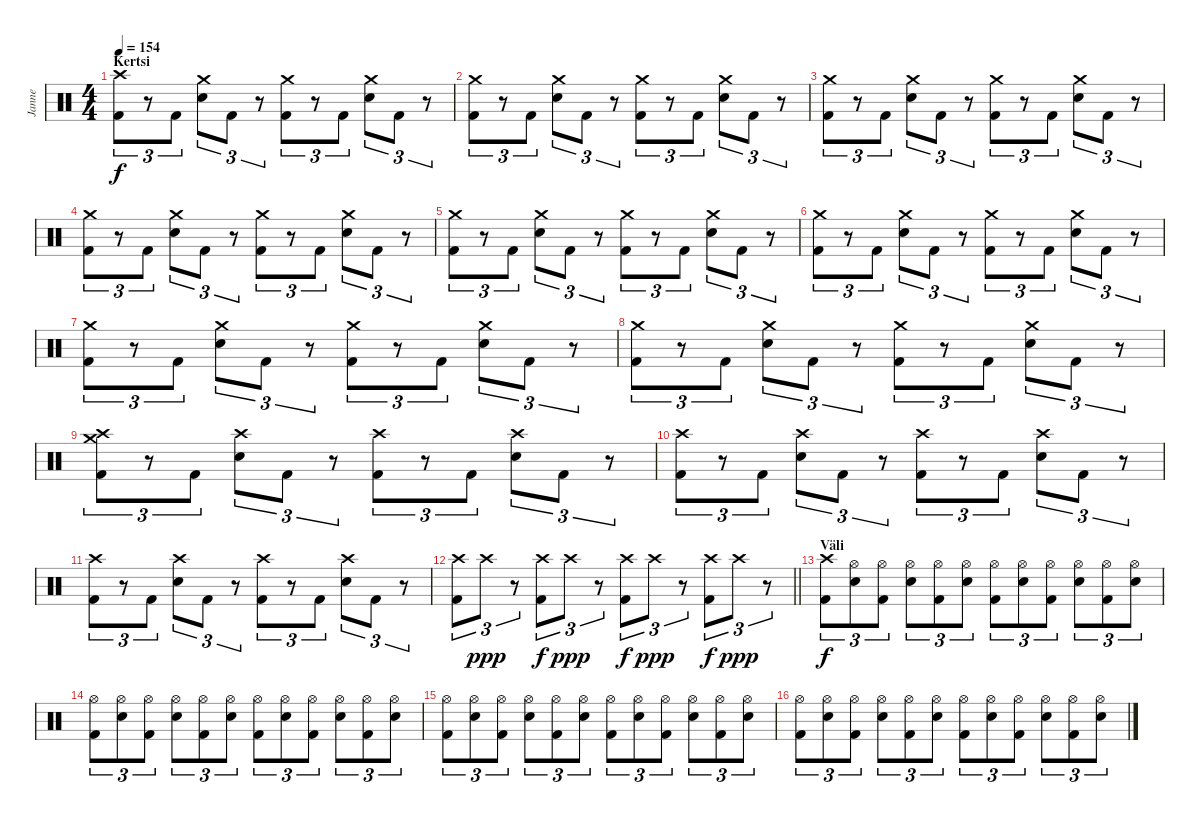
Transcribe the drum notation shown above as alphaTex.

\track ("Janne" "Janne") {instrument percussion}
\staff {score}
\articulation defaults
\ts (4 4)
\section ("" "Kertsi")
\tempo 154
\clef neutral
\ks c
("Crash high (hit)" "Kick (hit) 2").8{tu (3 2) dy f} r.8{tu (3 2)} "Kick (hit) 2".8{tu (3 2)} ("Crash medium (hit)" "Electric Snare (hit)").8{tu (3 2)} "Kick (hit) 2".8{tu (3 2)} r.8{tu (3 2)} ("Crash medium (hit)" "Kick (hit) 2").8{tu (3 2)} r.8{tu (3 2)} "Kick (hit) 2".8{tu (3 2)} ("Crash medium (hit)" "Electric Snare (hit)").8{tu (3 2)} "Kick (hit) 2".8{tu (3 2)} r.8{tu (3 2)} |
("Crash medium (hit)" "Kick (hit) 2").8{tu (3 2)} r.8{tu (3 2)} "Kick (hit) 2".8{tu (3 2)} ("Crash medium (hit)" "Electric Snare (hit)").8{tu (3 2)} "Kick (hit) 2".8{tu (3 2)} r.8{tu (3 2)} ("Crash medium (hit)" "Kick (hit) 2").8{tu (3 2)} r.8{tu (3 2)} "Kick (hit) 2".8{tu (3 2)} ("Crash medium (hit)" "Electric Snare (hit)").8{tu (3 2)} "Kick (hit) 2".8{tu (3 2)} r.8{tu (3 2)} |
("Crash medium (hit)" "Kick (hit) 2").8{tu (3 2)} r.8{tu (3 2)} "Kick (hit) 2".8{tu (3 2)} ("Crash medium (hit)" "Electric Snare (hit)").8{tu (3 2)} "Kick (hit) 2".8{tu (3 2)} r.8{tu (3 2)} ("Crash medium (hit)" "Kick (hit) 2").8{tu (3 2)} r.8{tu (3 2)} "Kick (hit) 2".8{tu (3 2)} ("Crash medium (hit)" "Electric Snare (hit)").8{tu (3 2)} "Kick (hit) 2".8{tu (3 2)} r.8{tu (3 2)} |
("Crash medium (hit)" "Kick (hit) 2").8{tu (3 2)} r.8{tu (3 2)} "Kick (hit) 2".8{tu (3 2)} ("Crash medium (hit)" "Electric Snare (hit)").8{tu (3 2)} "Kick (hit) 2".8{tu (3 2)} r.8{tu (3 2)} ("Crash medium (hit)" "Kick (hit) 2").8{tu (3 2)} r.8{tu (3 2)} "Kick (hit) 2".8{tu (3 2)} ("Crash medium (hit)" "Electric Snare (hit)").8{tu (3 2)} "Kick (hit) 2".8{tu (3 2)} r.8{tu (3 2)} |
("Crash medium (hit)" "Kick (hit) 2").8{tu (3 2)} r.8{tu (3 2)} "Kick (hit) 2".8{tu (3 2)} ("Crash medium (hit)" "Electric Snare (hit)").8{tu (3 2)} "Kick (hit) 2".8{tu (3 2)} r.8{tu (3 2)} ("Crash medium (hit)" "Kick (hit) 2").8{tu (3 2)} r.8{tu (3 2)} "Kick (hit) 2".8{tu (3 2)} ("Crash medium (hit)" "Electric Snare (hit)").8{tu (3 2)} "Kick (hit) 2".8{tu (3 2)} r.8{tu (3 2)} |
("Crash medium (hit)" "Kick (hit) 2").8{tu (3 2)} r.8{tu (3 2)} "Kick (hit) 2".8{tu (3 2)} ("Crash medium (hit)" "Electric Snare (hit)").8{tu (3 2)} "Kick (hit) 2".8{tu (3 2)} r.8{tu (3 2)} ("Crash medium (hit)" "Kick (hit) 2").8{tu (3 2)} r.8{tu (3 2)} "Kick (hit) 2".8{tu (3 2)} ("Crash medium (hit)" "Electric Snare (hit)").8{tu (3 2)} "Kick (hit) 2".8{tu (3 2)} r.8{tu (3 2)} |
("Crash medium (hit)" "Kick (hit) 2").8{tu (3 2)} r.8{tu (3 2)} "Kick (hit) 2".8{tu (3 2)} ("Crash medium (hit)" "Electric Snare (hit)").8{tu (3 2)} "Kick (hit) 2".8{tu (3 2)} r.8{tu (3 2)} ("Crash medium (hit)" "Kick (hit) 2").8{tu (3 2)} r.8{tu (3 2)} "Kick (hit) 2".8{tu (3 2)} ("Crash medium (hit)" "Electric Snare (hit)").8{tu (3 2)} "Kick (hit) 2".8{tu (3 2)} r.8{tu (3 2)} |
("Crash medium (hit)" "Kick (hit) 2").8{tu (3 2)} r.8{tu (3 2)} "Kick (hit) 2".8{tu (3 2)} ("Crash medium (hit)" "Electric Snare (hit)").8{tu (3 2)} "Kick (hit) 2".8{tu (3 2)} r.8{tu (3 2)} ("Crash medium (hit)" "Kick (hit) 2").8{tu (3 2)} r.8{tu (3 2)} "Kick (hit) 2".8{tu (3 2)} ("Crash medium (hit)" "Electric Snare (hit)").8{tu (3 2)} "Kick (hit) 2".8{tu (3 2)} r.8{tu (3 2)} |
("Crash medium (hit)" "Crash high (hit)" "Kick (hit) 2").8{tu (3 2)} r.8{tu (3 2)} "Kick (hit) 2".8{tu (3 2)} ("Crash high (hit)" "Electric Snare (hit)").8{tu (3 2)} "Kick (hit) 2".8{tu (3 2)} r.8{tu (3 2)} ("Crash high (hit)" "Kick (hit) 2").8{tu (3 2)} r.8{tu (3 2)} "Kick (hit) 2".8{tu (3 2)} ("Crash high (hit)" "Electric Snare (hit)").8{tu (3 2)} "Kick (hit) 2".8{tu (3 2)} r.8{tu (3 2)} |
("Crash high (hit)" "Kick (hit) 2").8{tu (3 2)} r.8{tu (3 2)} "Kick (hit) 2".8{tu (3 2)} ("Crash high (hit)" "Electric Snare (hit)").8{tu (3 2)} "Kick (hit) 2".8{tu (3 2)} r.8{tu (3 2)} ("Crash high (hit)" "Kick (hit) 2").8{tu (3 2)} r.8{tu (3 2)} "Kick (hit) 2".8{tu (3 2)} ("Crash high (hit)" "Electric Snare (hit)").8{tu (3 2)} "Kick (hit) 2".8{tu (3 2)} r.8{tu (3 2)} |
("Crash high (hit)" "Kick (hit) 2").8{tu (3 2)} r.8{tu (3 2)} "Kick (hit) 2".8{tu (3 2)} ("Crash high (hit)" "Electric Snare (hit)").8{tu (3 2)} "Kick (hit) 2".8{tu (3 2)} r.8{tu (3 2)} ("Crash high (hit)" "Kick (hit) 2").8{tu (3 2)} r.8{tu (3 2)} "Kick (hit) 2".8{tu (3 2)} ("Crash high (hit)" "Electric Snare (hit)").8{tu (3 2)} "Kick (hit) 2".8{tu (3 2)} r.8{tu (3 2)} |
\barLineRight lightlight
("Crash high (hit)" "Kick (hit) 2").8{tu (3 2)} "Crash high (hit)".8{tu (3 2) dy ppp} r.8{tu (3 2)} ("Crash high (hit)" "Kick (hit) 2").8{tu (3 2) dy f} "Crash high (hit)".8{tu (3 2) dy ppp} r.8{tu (3 2)} ("Crash high (hit)" "Kick (hit) 2").8{tu (3 2) dy f} "Crash high (hit)".8{tu (3 2) dy ppp} r.8{tu (3 2)} ("Crash high (hit)" "Kick (hit) 2").8{tu (3 2) dy f} "Crash high (hit)".8{tu (3 2) dy ppp} r.8{tu (3 2)} |
\section ("" "Väli")
("Crash high (hit)" "Kick (hit) 2").8{tu (3 2) dy f} ("Hi-Hat (open)" "Electric Snare (hit)").8{tu (3 2)} ("Hi-Hat (open)" "Kick (hit) 2").8{tu (3 2)} ("Hi-Hat (open)" "Electric Snare (hit)").8{tu (3 2)} ("Hi-Hat (open)" "Kick (hit) 2").8{tu (3 2)} ("Hi-Hat (open)" "Electric Snare (hit)").8{tu (3 2)} ("Hi-Hat (open)" "Kick (hit) 2").8{tu (3 2)} ("Hi-Hat (open)" "Electric Snare (hit)").8{tu (3 2)} ("Hi-Hat (open)" "Kick (hit) 2").8{tu (3 2)} ("Hi-Hat (open)" "Electric Snare (hit)").8{tu (3 2)} ("Hi-Hat (open)" "Kick (hit) 2").8{tu (3 2)} ("Hi-Hat (open)" "Electric Snare (hit)").8{tu (3 2)} |
("Hi-Hat (open)" "Kick (hit) 2").8{tu (3 2)} ("Hi-Hat (open)" "Electric Snare (hit)").8{tu (3 2)} ("Hi-Hat (open)" "Kick (hit) 2").8{tu (3 2)} ("Hi-Hat (open)" "Electric Snare (hit)").8{tu (3 2)} ("Hi-Hat (open)" "Kick (hit) 2").8{tu (3 2)} ("Hi-Hat (open)" "Electric Snare (hit)").8{tu (3 2)} ("Hi-Hat (open)" "Kick (hit) 2").8{tu (3 2)} ("Hi-Hat (open)" "Electric Snare (hit)").8{tu (3 2)} ("Hi-Hat (open)" "Kick (hit) 2").8{tu (3 2)} ("Hi-Hat (open)" "Electric Snare (hit)").8{tu (3 2)} ("Hi-Hat (open)" "Kick (hit) 2").8{tu (3 2)} ("Hi-Hat (open)" "Electric Snare (hit)").8{tu (3 2)} |
("Hi-Hat (open)" "Kick (hit) 2").8{tu (3 2)} ("Hi-Hat (open)" "Electric Snare (hit)").8{tu (3 2)} ("Hi-Hat (open)" "Kick (hit) 2").8{tu (3 2)} ("Hi-Hat (open)" "Electric Snare (hit)").8{tu (3 2)} ("Hi-Hat (open)" "Kick (hit) 2").8{tu (3 2)} ("Hi-Hat (open)" "Electric Snare (hit)").8{tu (3 2)} ("Hi-Hat (open)" "Kick (hit) 2").8{tu (3 2)} ("Hi-Hat (open)" "Electric Snare (hit)").8{tu (3 2)} ("Hi-Hat (open)" "Kick (hit) 2").8{tu (3 2)} ("Hi-Hat (open)" "Electric Snare (hit)").8{tu (3 2)} ("Hi-Hat (open)" "Kick (hit) 2").8{tu (3 2)} ("Hi-Hat (open)" "Electric Snare (hit)").8{tu (3 2)} |
("Hi-Hat (open)" "Kick (hit) 2").8{tu (3 2)} ("Hi-Hat (open)" "Electric Snare (hit)").8{tu (3 2)} ("Hi-Hat (open)" "Kick (hit) 2").8{tu (3 2)} ("Hi-Hat (open)" "Electric Snare (hit)").8{tu (3 2)} ("Hi-Hat (open)" "Kick (hit) 2").8{tu (3 2)} ("Hi-Hat (open)" "Electric Snare (hit)").8{tu (3 2)} ("Hi-Hat (open)" "Kick (hit) 2").8{tu (3 2)} ("Hi-Hat (open)" "Electric Snare (hit)").8{tu (3 2)} ("Hi-Hat (open)" "Kick (hit) 2").8{tu (3 2)} ("Hi-Hat (open)" "Electric Snare (hit)").8{tu (3 2)} ("Hi-Hat (open)" "Kick (hit) 2").8{tu (3 2)} ("Hi-Hat (open)" "Electric Snare (hit)").8{tu (3 2)}
